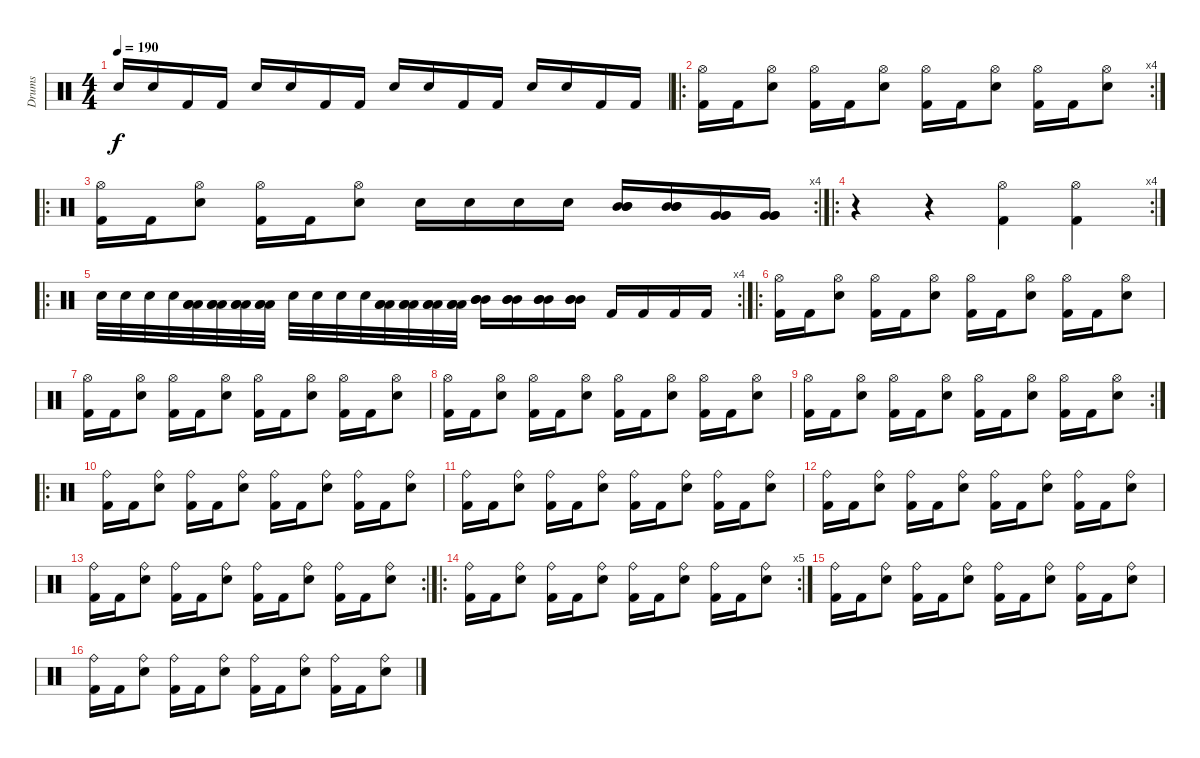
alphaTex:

\track ("Drums" "Drums") {instrument percussion}
\staff {score}
\articulation defaults
\ts (4 4)
\tempo 190
\clef neutral
\ks c "Electric Snare (hit)".16{dy f} "Electric Snare (hit)".16 "Kick (hit) 2".16 "Kick (hit) 2".16 "Electric Snare (hit)".16 "Electric Snare (hit)".16 "Kick (hit) 2".16 "Kick (hit) 2".16 "Electric Snare (hit)".16 "Electric Snare (hit)".16 "Kick (hit) 2".16 "Kick (hit) 2".16 "Electric Snare (hit)".16 "Electric Snare (hit)".16 "Kick (hit) 2".16 "Kick (hit) 2".16
|
\ro
\rc 4
("Hi-Hat (open)" "Kick (hit) 2").16 "Kick (hit) 2".16 ("Hi-Hat (open)" "Electric Snare (hit)").8 ("Hi-Hat (open)" "Kick (hit) 2").16 "Kick (hit) 2".16 ("Hi-Hat (open)" "Electric Snare (hit)").8 ("Hi-Hat (open)" "Kick (hit) 2").16 "Kick (hit) 2".16 ("Hi-Hat (open)" "Electric Snare (hit)").8 ("Hi-Hat (open)" "Kick (hit) 2").16 "Kick (hit) 2".16 ("Hi-Hat (open)" "Electric Snare (hit)").8 |
\ro
\rc 4
("Hi-Hat (open)" "Kick (hit) 2").16 "Kick (hit) 2".16 ("Hi-Hat (open)" "Electric Snare (hit)").8 ("Hi-Hat (open)" "Kick (hit) 2").16 "Kick (hit) 2".16 ("Hi-Hat (open)" "Electric Snare (hit)").8 "Electric Snare (hit)".16 "Electric Snare (hit)".16 "Electric Snare (hit)".16 "Electric Snare (hit)".16 ("Mid Tom (hit)" "Mid Tom (hit)" "Mid Tom (hit)").16 ("Mid Tom (hit)" "Mid Tom (hit)" "Mid Tom (hit)").16 ("Very Low Tom (hit)" "Very Low Tom (hit)" "Very Low Tom (hit)").16 ("Very Low Tom (hit)" "Very Low Tom (hit)" "Very Low Tom (hit)").16 |
\ro
\rc 4
r.4 r.4 ("Hi-Hat (open)" "Kick (hit) 2").4 ("Hi-Hat (open)" "Kick (hit) 2").4 |
\ro
\rc 4 "Electric Snare (hit)".32 "Electric Snare (hit)".32 "Electric Snare (hit)".32 "Electric Snare (hit)".32
("Low Tom (hit)" "Low Tom (hit)" "Low Tom (hit)").32 ("Low Tom (hit)" "Low Tom (hit)" "Low Tom (hit)").32 ("Low Tom (hit)" "Low Tom (hit)" "Low Tom (hit)").32 ("Low Tom (hit)" "Low Tom (hit)" "Low Tom (hit)").32 "Electric Snare (hit)".32 "Electric Snare (hit)".32 "Electric Snare (hit)".32 "Electric Snare (hit)".32 ("Low Tom (hit)" "Low Tom (hit)" "Low Tom (hit)").32 ("Low Tom (hit)" "Low Tom (hit)" "Low Tom (hit)").32 ("Low Tom (hit)" "Low Tom (hit)" "Low Tom (hit)").32 ("Low Tom (hit)" "Low Tom (hit)" "Low Tom (hit)").32 ("Mid Tom (hit)" "Mid Tom (hit)" "Mid Tom (hit)").16 ("Mid Tom (hit)" "Mid Tom (hit)" "Mid Tom (hit)").16 ("Mid Tom (hit)" "Mid Tom (hit)" "Mid Tom (hit)").16 ("Mid Tom (hit)" "Mid Tom (hit)" "Mid Tom (hit)").16 "Kick (hit) 2".16 "Kick (hit) 2".16 "Kick (hit) 2".16 "Kick (hit) 2".16 |
\ro
("Hi-Hat (open)" "Kick (hit) 2").16 "Kick (hit) 2".16 ("Hi-Hat (open)" "Electric Snare (hit)").8 ("Hi-Hat (open)" "Kick (hit) 2").16 "Kick (hit) 2".16 ("Hi-Hat (open)" "Electric Snare (hit)").8 ("Hi-Hat (open)" "Kick (hit) 2").16 "Kick (hit) 2".16 ("Hi-Hat (open)" "Electric Snare (hit)").8 ("Hi-Hat (open)" "Kick (hit) 2").16 "Kick (hit) 2".16 ("Hi-Hat (open)" "Electric Snare (hit)").8 |
("Hi-Hat (open)" "Kick (hit) 2").16 "Kick (hit) 2".16 ("Hi-Hat (open)" "Electric Snare (hit)").8 ("Hi-Hat (open)" "Kick (hit) 2").16 "Kick (hit) 2".16 ("Hi-Hat (open)" "Electric Snare (hit)").8 ("Hi-Hat (open)" "Kick (hit) 2").16 "Kick (hit) 2".16 ("Hi-Hat (open)" "Electric Snare (hit)").8 ("Hi-Hat (open)" "Kick (hit) 2").16 "Kick (hit) 2".16 ("Hi-Hat (open)" "Electric Snare (hit)").8 |
("Hi-Hat (open)" "Kick (hit) 2").16 "Kick (hit) 2".16 ("Hi-Hat (open)" "Electric Snare (hit)").8 ("Hi-Hat (open)" "Kick (hit) 2").16 "Kick (hit) 2".16 ("Hi-Hat (open)" "Electric Snare (hit)").8 ("Hi-Hat (open)" "Kick (hit) 2").16 "Kick (hit) 2".16 ("Hi-Hat (open)" "Electric Snare (hit)").8 ("Hi-Hat (open)" "Kick (hit) 2").16 "Kick (hit) 2".16 ("Hi-Hat (open)" "Electric Snare (hit)").8 |
\rc 2
("Hi-Hat (open)" "Kick (hit) 2").16 "Kick (hit) 2".16 ("Hi-Hat (open)" "Electric Snare (hit)").8 ("Hi-Hat (open)" "Kick (hit) 2").16 "Kick (hit) 2".16 ("Hi-Hat (open)" "Electric Snare (hit)").8 ("Hi-Hat (open)" "Kick (hit) 2").16 "Kick (hit) 2".16 ("Hi-Hat (open)" "Electric Snare (hit)").8 ("Hi-Hat (open)" "Kick (hit) 2").16 "Kick (hit) 2".16 ("Hi-Hat (open)" "Electric Snare (hit)").8 |
\ro
("Ride (bell)" "Kick (hit) 2").16 "Kick (hit) 2".16 ("Ride (bell)" "Electric Snare (hit)").8 ("Ride (bell)" "Kick (hit) 2").16 "Kick (hit) 2".16 ("Ride (bell)" "Electric Snare (hit)").8 ("Ride (bell)" "Kick (hit) 2").16 "Kick (hit) 2".16 ("Ride (bell)" "Electric Snare (hit)").8 ("Ride (bell)" "Kick (hit) 2").16 "Kick (hit) 2".16 ("Ride (bell)" "Electric Snare (hit)").8 |
("Ride (bell)" "Kick (hit) 2").16 "Kick (hit) 2".16 ("Ride (bell)" "Electric Snare (hit)").8 ("Ride (bell)" "Kick (hit) 2").16 "Kick (hit) 2".16 ("Ride (bell)" "Electric Snare (hit)").8 ("Ride (bell)" "Kick (hit) 2").16 "Kick (hit) 2".16 ("Ride (bell)" "Electric Snare (hit)").8 ("Ride (bell)" "Kick (hit) 2").16 "Kick (hit) 2".16 ("Ride (bell)" "Electric Snare (hit)").8 |
("Ride (bell)" "Kick (hit) 2").16 "Kick (hit) 2".16 ("Ride (bell)" "Electric Snare (hit)").8 ("Ride (bell)" "Kick (hit) 2").16 "Kick (hit) 2".16 ("Ride (bell)" "Electric Snare (hit)").8 ("Ride (bell)" "Kick (hit) 2").16 "Kick (hit) 2".16 ("Ride (bell)" "Electric Snare (hit)").8 ("Ride (bell)" "Kick (hit) 2").16 "Kick (hit) 2".16 ("Ride (bell)" "Electric Snare (hit)").8 |
\rc 2
("Ride (bell)" "Kick (hit) 2").16 "Kick (hit) 2".16 ("Ride (bell)" "Electric Snare (hit)").8 ("Ride (bell)" "Kick (hit) 2").16 "Kick (hit) 2".16 ("Ride (bell)" "Electric Snare (hit)").8 ("Ride (bell)" "Kick (hit) 2").16 "Kick (hit) 2".16 ("Ride (bell)" "Electric Snare (hit)").8 ("Ride (bell)" "Kick (hit) 2").16 "Kick (hit) 2".16 ("Ride (bell)" "Electric Snare (hit)").8 |
\ro
\rc 5
("Ride (bell)" "Kick (hit) 2").16 "Kick (hit) 2".16 ("Ride (bell)" "Electric Snare (hit)").8 ("Ride (bell)" "Kick (hit) 2").16 "Kick (hit) 2".16 ("Ride (bell)" "Electric Snare (hit)").8 ("Ride (bell)" "Kick (hit) 2").16 "Kick (hit) 2".16 ("Ride (bell)" "Electric Snare (hit)").8 ("Ride (bell)" "Kick (hit) 2").16 "Kick (hit) 2".16 ("Ride (bell)" "Electric Snare (hit)").8 |
("Ride (bell)" "Kick (hit) 2").16 "Kick (hit) 2".16 ("Ride (bell)" "Electric Snare (hit)").8 ("Ride (bell)" "Kick (hit) 2").16 "Kick (hit) 2".16 ("Ride (bell)" "Electric Snare (hit)").8 ("Ride (bell)" "Kick (hit) 2").16 "Kick (hit) 2".16 ("Ride (bell)" "Electric Snare (hit)").8 ("Ride (bell)" "Kick (hit) 2").16 "Kick (hit) 2".16 ("Ride (bell)" "Electric Snare (hit)").8 |
("Ride (bell)" "Kick (hit) 2").16 "Kick (hit) 2".16 ("Ride (bell)" "Electric Snare (hit)").8 ("Ride (bell)" "Kick (hit) 2").16 "Kick (hit) 2".16 ("Ride (bell)" "Electric Snare (hit)").8 ("Ride (bell)" "Kick (hit) 2").16 "Kick (hit) 2".16 ("Ride (bell)" "Electric Snare (hit)").8 ("Ride (bell)" "Kick (hit) 2").16 "Kick (hit) 2".16 ("Ride (bell)" "Electric Snare (hit)").8
